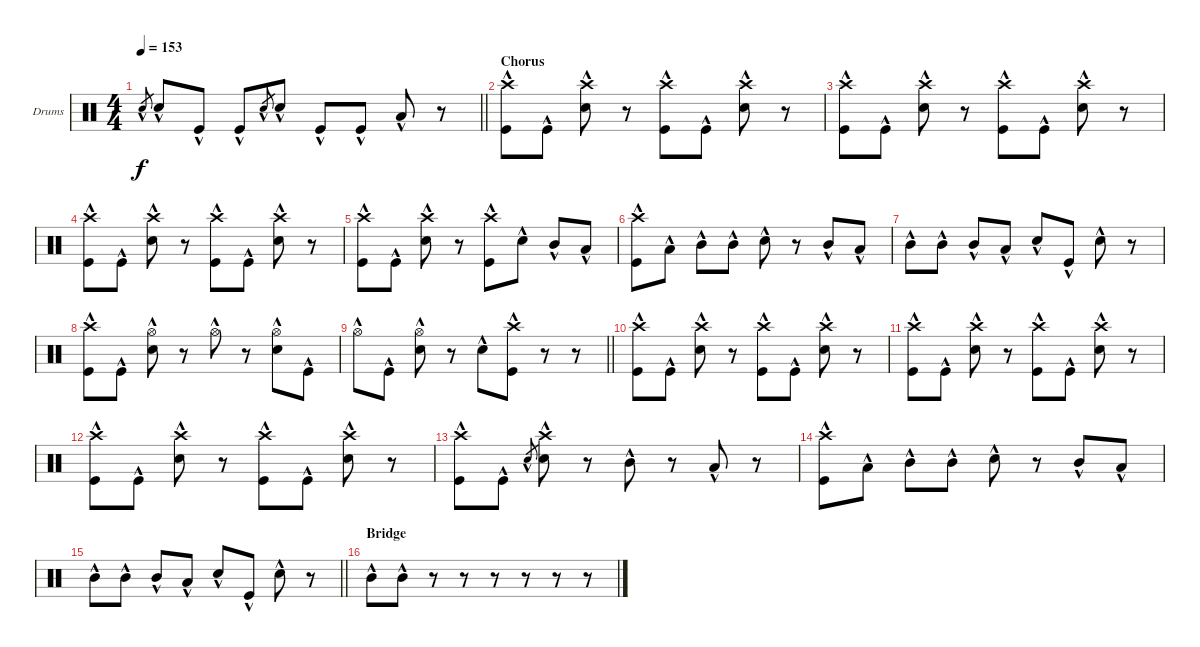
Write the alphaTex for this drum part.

\bracketExtendMode groupsimilarinstruments
\firstSystemTrackNameOrientation horizontal
\otherSystemsTrackNameOrientation horizontal
\track ("Drumkit" "Drums") {solo instrument percussion}
\staff {score}
\articulation defaults
\ts (4 4)
\tempo 153
\clef neutral
\barLineRight lightlight
\ks c "Snare (hit) 2"{hac}.8{gr dy f} "Snare (hit) 2"{hac}.8 "Kick (hit)"{hac}.8 "Kick (hit)"{hac}.8 "Snare (hit) 2"{hac}.8{gr} "Snare (hit) 2"{hac}.8 "Kick (hit)"{hac}.8 "Kick (hit)"{hac}.8 "Low Tom (hit)"{hac}.8
r.8 |
\section ("" "Chorus")
("Crash high (hit)"{hac} "Kick (hit)"{hac}).8 "Kick (hit)"{hac}.8 ("Crash high (hit)"{hac} "Snare (hit) 2"{hac}).8 r.8 ("Crash high (hit)"{hac} "Kick (hit)"{hac}).8 "Kick (hit)"{hac}.8 ("Crash high (hit)"{hac} "Snare (hit) 2"{hac}).8 r.8 |
("Crash high (hit)"{hac} "Kick (hit)"{hac}).8 "Kick (hit)"{hac}.8 ("Crash high (hit)"{hac} "Snare (hit) 2"{hac}).8 r.8 ("Crash high (hit)"{hac} "Kick (hit)"{hac}).8 "Kick (hit)"{hac}.8 ("Crash high (hit)"{hac} "Snare (hit) 2"{hac}).8 r.8 |
("Crash high (hit)"{hac} "Kick (hit)"{hac}).8 "Kick (hit)"{hac}.8 ("Crash high (hit)"{hac} "Snare (hit) 2"{hac}).8 r.8 ("Crash high (hit)"{hac} "Kick (hit)"{hac}).8 "Kick (hit)"{hac}.8 ("Crash high (hit)"{hac} "Snare (hit) 2"{hac}).8 r.8 |
("Crash high (hit)"{hac} "Kick (hit)"{hac}).8 "Kick (hit)"{hac}.8 ("Crash high (hit)"{hac} "Snare (hit) 2"{hac}).8 r.8 ("Crash high (hit)"{hac} "Kick (hit)"{hac}).8 "Snare (hit) 2"{hac}.8 "Mid Tom (hit)"{hac}.8 "Low Tom (hit)"{hac}.8 |
("Crash high (hit)"{hac} "Kick (hit)"{hac}).8 "Low Tom (hit)"{hac}.8 "Mid Tom (hit)"{hac}.8 "Mid Tom (hit)"{hac}.8 "Snare (hit) 2"{hac}.8 r.8 "Mid Tom (hit)"{hac}.8 "Low Tom (hit)"{hac}.8 |
"Mid Tom (hit)"{hac}.8 "Mid Tom (hit)"{hac}.8 "Mid Tom (hit)"{hac}.8 "Low Tom (hit)"{hac}.8 "Snare (hit) 2"{hac}.8 "Kick (hit)"{hac}.8 "Snare (hit) 2"{hac}.8 r.8 |
("Crash high (hit)"{hac} "Kick (hit)"{hac}).8 "Kick (hit)"{hac}.8 ("Hi-Hat (open)"{hac} "Snare (hit) 2"{hac}).8 r.8 "Hi-Hat (open)"{hac}.8 r.8 ("Hi-Hat (open)"{hac} "Snare (hit) 2"{hac}).8 "Kick (hit)"{hac}.8 |
\barLineRight lightlight "Hi-Hat (open)"{hac}.8 "Kick (hit)"{hac}.8
("Hi-Hat (open)"{hac} "Snare (hit) 2"{hac}).8 r.8 "Snare (hit) 2"{hac}.8 ("Crash high (hit)"{hac} "Kick (hit)"{hac}).8 r.8 r.8 |
("Crash high (hit)"{hac} "Kick (hit)"{hac}).8 "Kick (hit)"{hac}.8 ("Crash high (hit)"{hac} "Snare (hit) 2"{hac}).8 r.8 ("Crash high (hit)"{hac} "Kick (hit)"{hac}).8 "Kick (hit)"{hac}.8 ("Crash high (hit)"{hac} "Snare (hit) 2"{hac}).8 r.8 |
("Crash high (hit)"{hac} "Kick (hit)"{hac}).8 "Kick (hit)"{hac}.8 ("Crash high (hit)"{hac} "Snare (hit) 2"{hac}).8 r.8 ("Crash high (hit)"{hac} "Kick (hit)"{hac}).8 "Kick (hit)"{hac}.8 ("Crash high (hit)"{hac} "Snare (hit) 2"{hac}).8 r.8 |
("Crash high (hit)"{hac} "Kick (hit)"{hac}).8 "Kick (hit)"{hac}.8 ("Crash high (hit)"{hac} "Snare (hit) 2"{hac}).8 r.8 ("Crash high (hit)"{hac} "Kick (hit)"{hac}).8 "Kick (hit)"{hac}.8 ("Crash high (hit)"{hac} "Snare (hit) 2"{hac}).8 r.8 |
("Crash high (hit)"{hac} "Kick (hit)"{hac}).8 "Kick (hit)"{hac}.8 "Snare (hit) 2"{hac}.8{gr} ("Crash high (hit)"{hac} "Snare (hit) 2"{hac}).8 r.8 "Mid Tom (hit)"{hac}.8 r.8 "Low Tom (hit)"{hac}.8 r.8 |
("Crash high (hit)"{hac} "Kick (hit)"{hac}).8 "Low Tom (hit)"{hac}.8 "Mid Tom (hit)"{hac}.8 "Mid Tom (hit)"{hac}.8 "Snare (hit) 2"{hac}.8 r.8 "Mid Tom (hit)"{hac}.8 "Low Tom (hit)"{hac}.8 |
\barLineRight lightlight "Mid Tom (hit)"{hac}.8 "Mid Tom (hit)"{hac}.8 "Mid Tom (hit)"{hac}.8 "Low Tom (hit)"{hac}.8 "Snare (hit) 2"{hac}.8 "Kick (hit)"{hac}.8 "Snare (hit) 2"{hac}.8
r.8 |
\section ("" "Bridge")
"Mid Tom (hit)"{hac}.8 "Mid Tom (hit)"{hac}.8 r.8 r.8 r.8 r.8 r.8 r.8
